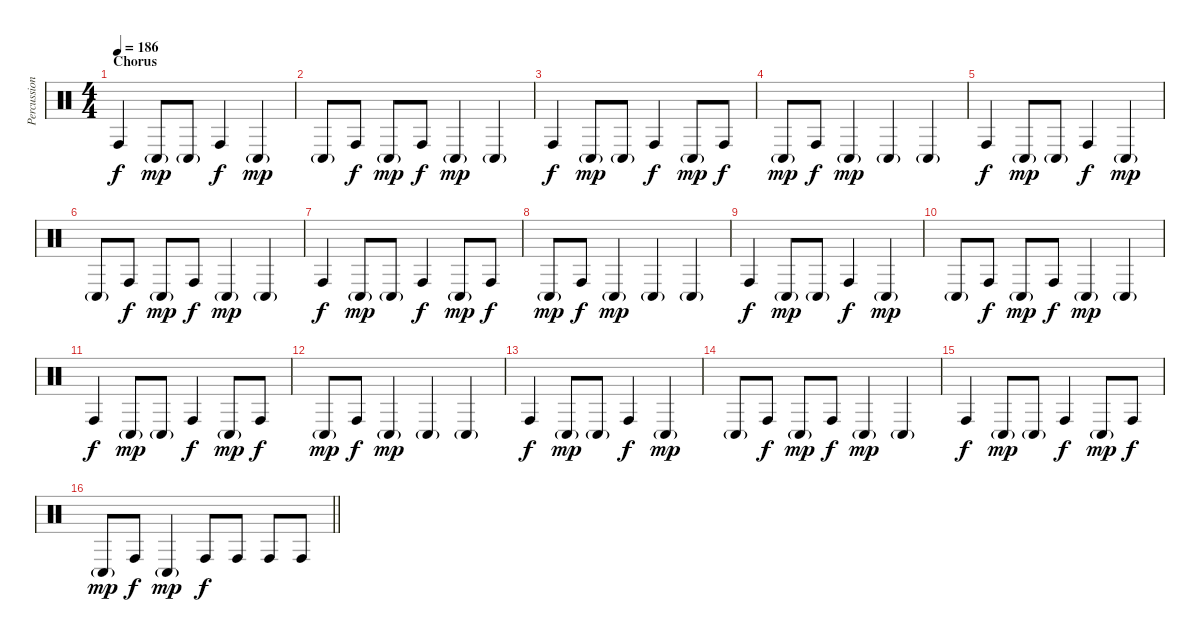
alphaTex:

\track ("Percussion" "Percussion") {instrument percussion}
\staff {score}
\articulation defaults
\ts (4 4)
\section ("" "Chorus")
\tempo 186
\clef neutral
\ks c "Conga high (hit)".4{dy f} "Conga low (hit)"{g}.8{dy mp} "Conga low (hit)"{g}.8 "Conga high (hit)".4{dy f} "Conga low (hit)"{g}.4{dy mp}
|
"Conga low (hit)"{g}.8 "Conga high (hit)".8{dy f} "Conga low (hit)"{g}.8{dy mp} "Conga high (hit)".8{dy f} "Conga low (hit)"{g}.4{dy mp} "Conga low (hit)"{g}.4 |
"Conga high (hit)".4{dy f} "Conga low (hit)"{g}.8{dy mp} "Conga low (hit)"{g}.8 "Conga high (hit)".4{dy f} "Conga low (hit)"{g}.8{dy mp} "Conga high (hit)".8{dy f} |
"Conga low (hit)"{g}.8{dy mp} "Conga high (hit)".8{dy f} "Conga low (hit)"{g}.4{dy mp} "Conga low (hit)"{g}.4 "Conga low (hit)"{g}.4 |
"Conga high (hit)".4{dy f} "Conga low (hit)"{g}.8{dy mp} "Conga low (hit)"{g}.8 "Conga high (hit)".4{dy f} "Conga low (hit)"{g}.4{dy mp} |
"Conga low (hit)"{g}.8 "Conga high (hit)".8{dy f} "Conga low (hit)"{g}.8{dy mp} "Conga high (hit)".8{dy f} "Conga low (hit)"{g}.4{dy mp} "Conga low (hit)"{g}.4 |
"Conga high (hit)".4{dy f} "Conga low (hit)"{g}.8{dy mp} "Conga low (hit)"{g}.8 "Conga high (hit)".4{dy f} "Conga low (hit)"{g}.8{dy mp} "Conga high (hit)".8{dy f} |
"Conga low (hit)"{g}.8{dy mp} "Conga high (hit)".8{dy f} "Conga low (hit)"{g}.4{dy mp} "Conga low (hit)"{g}.4 "Conga low (hit)"{g}.4 |
"Conga high (hit)".4{dy f} "Conga low (hit)"{g}.8{dy mp} "Conga low (hit)"{g}.8 "Conga high (hit)".4{dy f} "Conga low (hit)"{g}.4{dy mp} |
"Conga low (hit)"{g}.8 "Conga high (hit)".8{dy f} "Conga low (hit)"{g}.8{dy mp} "Conga high (hit)".8{dy f} "Conga low (hit)"{g}.4{dy mp} "Conga low (hit)"{g}.4 |
"Conga high (hit)".4{dy f} "Conga low (hit)"{g}.8{dy mp} "Conga low (hit)"{g}.8 "Conga high (hit)".4{dy f} "Conga low (hit)"{g}.8{dy mp} "Conga high (hit)".8{dy f} |
"Conga low (hit)"{g}.8{dy mp} "Conga high (hit)".8{dy f} "Conga low (hit)"{g}.4{dy mp} "Conga low (hit)"{g}.4 "Conga low (hit)"{g}.4 |
"Conga high (hit)".4{dy f} "Conga low (hit)"{g}.8{dy mp} "Conga low (hit)"{g}.8 "Conga high (hit)".4{dy f} "Conga low (hit)"{g}.4{dy mp} |
"Conga low (hit)"{g}.8 "Conga high (hit)".8{dy f} "Conga low (hit)"{g}.8{dy mp} "Conga high (hit)".8{dy f} "Conga low (hit)"{g}.4{dy mp} "Conga low (hit)"{g}.4 |
"Conga high (hit)".4{dy f} "Conga low (hit)"{g}.8{dy mp} "Conga low (hit)"{g}.8 "Conga high (hit)".4{dy f} "Conga low (hit)"{g}.8{dy mp} "Conga high (hit)".8{dy f} |
\barLineRight lightlight "Conga low (hit)"{g}.8{dy mp} "Conga high (hit)".8{dy f} "Conga low (hit)"{g}.4{dy mp} "Conga high (hit)".8{dy f} "Conga high (hit)".8 "Conga high (hit)".8 "Conga high (hit)".8
